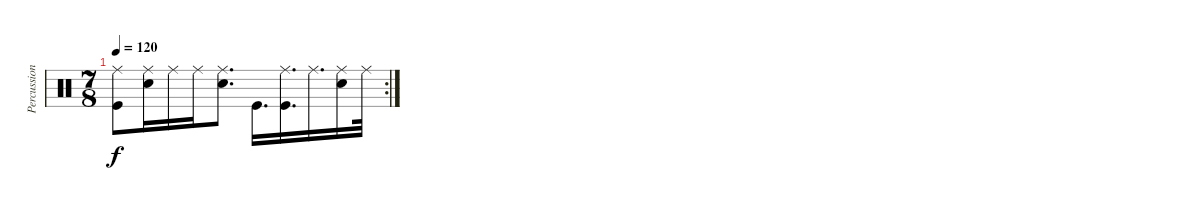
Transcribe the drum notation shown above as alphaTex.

\track ("Percussion" "Percussion") {instrument percussion}
\staff {score}
\articulation defaults
\rc 2
\ts (7 8)
\tempo 120
\clef neutral
\ks c
("Ride (middle)" "Kick (hit)").8{dy f} ("Ride (middle)" "Snare (hit) 2").16 "Ride (middle)".16 "Ride (middle)".16 ("Ride (middle)" "Snare (hit) 2").8{d} "Kick (hit)".16{d} ("Ride (middle)" "Kick (hit)").16{d} "Ride (middle)".16{d} ("Ride (middle)" "Snare (hit) 2").16 "Ride (middle)".32
